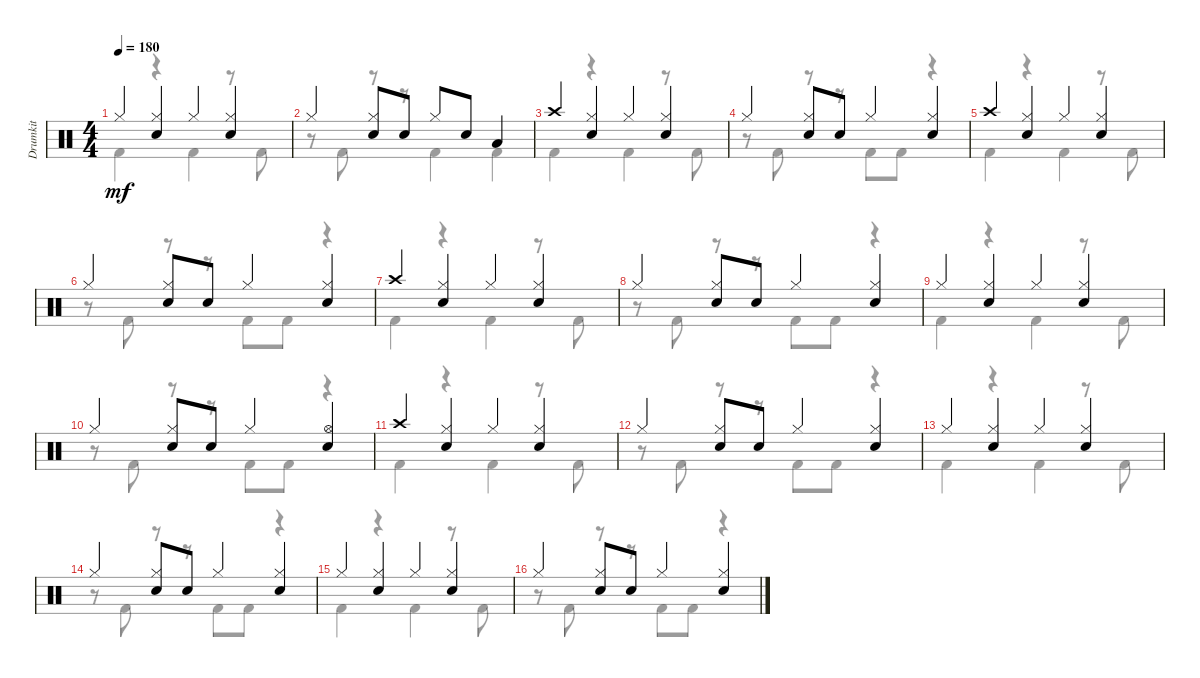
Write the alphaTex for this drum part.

\track ("Drumkit" "Drumkit") {instrument percussion}
\staff {score}
\articulation defaults
\voice
\ts (4 4)
\tempo 180
\clef neutral
\ks c "Hi-Hat (closed)".4{dy mf}
("Hi-Hat (closed)" "Snare (hit) 2").4 "Hi-Hat (closed)".4 ("Hi-Hat (closed)" "Snare (hit) 2").4 |
"Hi-Hat (closed)".4 ("Hi-Hat (closed)" "Snare (hit) 2").8 "Snare (hit) 2".8 "Hi-Hat (closed)".8 "Snare (hit) 2".8 "Low Tom (hit)".4 |
"Crash high (hit)".4 ("Hi-Hat (closed)" "Snare (hit) 2").4 "Hi-Hat (closed)".4 ("Hi-Hat (closed)" "Snare (hit) 2").4 |
"Hi-Hat (closed)".4 ("Hi-Hat (closed)" "Snare (hit) 2").8 "Snare (hit) 2".8 "Hi-Hat (closed)".4 ("Hi-Hat (closed)" "Snare (hit) 2").4 |
"Crash high (hit)".4 ("Hi-Hat (closed)" "Snare (hit) 2").4 "Hi-Hat (closed)".4 ("Hi-Hat (closed)" "Snare (hit) 2").4 |
"Hi-Hat (closed)".4 ("Hi-Hat (closed)" "Snare (hit) 2").8 "Snare (hit) 2".8 "Hi-Hat (closed)".4 ("Hi-Hat (closed)" "Snare (hit) 2").4 |
"Crash high (hit)".4 ("Hi-Hat (closed)" "Snare (hit) 2").4 "Hi-Hat (closed)".4 ("Hi-Hat (closed)" "Snare (hit) 2").4 |
"Hi-Hat (closed)".4 ("Hi-Hat (closed)" "Snare (hit) 2").8 "Snare (hit) 2".8 "Hi-Hat (closed)".4 ("Hi-Hat (closed)" "Snare (hit) 2").4 |
"Hi-Hat (closed)".4 ("Hi-Hat (closed)" "Snare (hit) 2").4 "Hi-Hat (closed)".4 ("Hi-Hat (closed)" "Snare (hit) 2").4 |
"Hi-Hat (closed)".4 ("Hi-Hat (closed)" "Snare (hit) 2").8 "Snare (hit) 2".8 "Hi-Hat (closed)".4 ("Hi-Hat (open)" "Snare (hit) 2").4 |
"Crash high (hit)".4 ("Hi-Hat (closed)" "Snare (hit) 2").4 "Hi-Hat (closed)".4 ("Hi-Hat (closed)" "Snare (hit) 2").4 |
"Hi-Hat (closed)".4 ("Hi-Hat (closed)" "Snare (hit) 2").8 "Snare (hit) 2".8 "Hi-Hat (closed)".4 ("Hi-Hat (closed)" "Snare (hit) 2").4 |
"Hi-Hat (closed)".4 ("Hi-Hat (closed)" "Snare (hit) 2").4 "Hi-Hat (closed)".4 ("Hi-Hat (closed)" "Snare (hit) 2").4 |
"Hi-Hat (closed)".4 ("Hi-Hat (closed)" "Snare (hit) 2").8 "Snare (hit) 2".8 "Hi-Hat (closed)".4 ("Hi-Hat (closed)" "Snare (hit) 2").4 |
"Hi-Hat (closed)".4 ("Hi-Hat (closed)" "Snare (hit) 2").4 "Hi-Hat (closed)".4 ("Hi-Hat (closed)" "Snare (hit) 2").4 |
"Hi-Hat (closed)".4 ("Hi-Hat (closed)" "Snare (hit) 2").8 "Snare (hit) 2".8 "Hi-Hat (closed)".4 ("Hi-Hat (closed)" "Snare (hit) 2").4
\voice
\clef neutral
\ottava regular
\simile none
\ks c "Kick (hit) 2".4{dy mf}
r.4 "Kick (hit) 2".4 r.8 "Kick (hit) 2".8 |
r.8 "Kick (hit) 2".8 r.8 r.8 "Kick (hit) 2".4 "Kick (hit) 2".4 |
"Kick (hit) 2".4 r.4 "Kick (hit) 2".4 r.8 "Kick (hit) 2".8 |
r.8 "Kick (hit) 2".8 r.8 r.8 "Kick (hit) 2".8 "Kick (hit) 2".8 r.4 |
"Kick (hit) 2".4 r.4 "Kick (hit) 2".4 r.8 "Kick (hit) 2".8 |
r.8 "Kick (hit) 2".8 r.8 r.8 "Kick (hit) 2".8 "Kick (hit) 2".8 r.4 |
"Kick (hit) 2".4 r.4 "Kick (hit) 2".4 r.8 "Kick (hit) 2".8 |
r.8 "Kick (hit) 2".8 r.8 r.8 "Kick (hit) 2".8 "Kick (hit) 2".8 r.4 |
"Kick (hit) 2".4 r.4 "Kick (hit) 2".4 r.8 "Kick (hit) 2".8 |
r.8 "Kick (hit) 2".8 r.8 r.8 "Kick (hit) 2".8 "Kick (hit) 2".8 r.4 |
"Kick (hit) 2".4 r.4 "Kick (hit) 2".4 r.8 "Kick (hit) 2".8 |
r.8 "Kick (hit) 2".8 r.8 r.8 "Kick (hit) 2".8 "Kick (hit) 2".8 r.4 |
"Kick (hit) 2".4 r.4 "Kick (hit) 2".4 r.8 "Kick (hit) 2".8 |
r.8 "Kick (hit) 2".8 r.8 r.8 "Kick (hit) 2".8 "Kick (hit) 2".8 r.4 |
"Kick (hit) 2".4 r.4 "Kick (hit) 2".4 r.8 "Kick (hit) 2".8 |
r.8 "Kick (hit) 2".8 r.8 r.8 "Kick (hit) 2".8 "Kick (hit) 2".8 r.4
